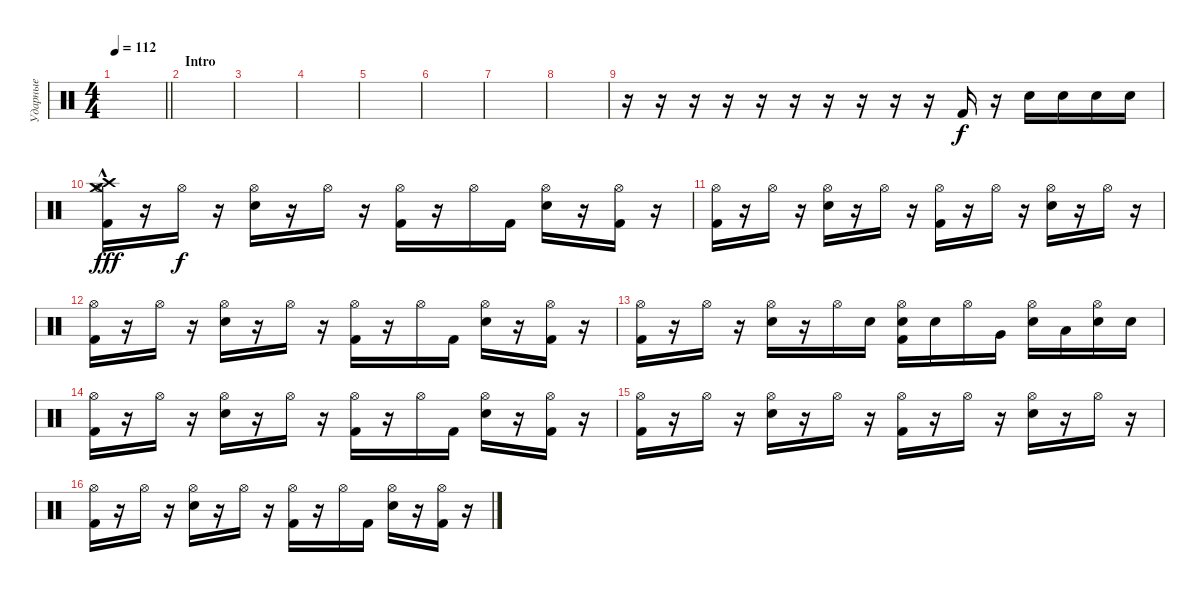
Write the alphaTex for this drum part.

\track ("Ударные" "Ударные") {instrument percussion}
\staff {score}
\articulation defaults
\ts (4 4)
\tempo 112
\clef neutral
\barLineRight lightlight
\ks c
|
\section ("" "Intro")
|
|
|
|
|
|
|
r.16 r.16 r.16 r.16 r.16 r.16 r.16 r.16 r.16 r.16 "Kick (hit) 2".16 r.16 "Snare (hit) 2".16 "Snare (hit) 2".16 "Snare (hit) 2".16 "Snare (hit) 2".16 |
("Crash high (hit)"{hac} "Crash medium (hit)"{hac} "Hi-Hat (open)" "Kick (hit) 2").16{dy fff} r.16 "Hi-Hat (open)".16{dy f} r.16 ("Hi-Hat (open)" "Snare (hit) 2").16 r.16 "Hi-Hat (open)".16 r.16 ("Hi-Hat (open)" "Kick (hit) 2").16 r.16 "Hi-Hat (open)".16 "Kick (hit) 2".16 ("Hi-Hat (open)" "Snare (hit) 2").16 r.16 ("Hi-Hat (open)" "Kick (hit) 2").16 r.16 |
("Hi-Hat (open)" "Kick (hit) 2").16 r.16 "Hi-Hat (open)".16 r.16 ("Hi-Hat (open)" "Snare (hit) 2").16 r.16 "Hi-Hat (open)".16 r.16 ("Hi-Hat (open)" "Kick (hit) 2").16 r.16 "Hi-Hat (open)".16 r.16 ("Hi-Hat (open)" "Snare (hit) 2").16 r.16 "Hi-Hat (open)".16 r.16 |
("Hi-Hat (open)" "Kick (hit) 2").16 r.16 "Hi-Hat (open)".16 r.16 ("Hi-Hat (open)" "Snare (hit) 2").16 r.16 "Hi-Hat (open)".16 r.16 ("Hi-Hat (open)" "Kick (hit) 2").16 r.16 "Hi-Hat (open)".16 "Kick (hit) 2".16 ("Hi-Hat (open)" "Snare (hit) 2").16 r.16 ("Hi-Hat (open)" "Kick (hit) 2").16 r.16 |
("Hi-Hat (open)" "Kick (hit) 2").16 r.16 "Hi-Hat (open)".16 r.16 ("Hi-Hat (open)" "Snare (hit) 2").16 r.16 "Hi-Hat (open)".16 "Snare (hit) 2".16 ("Hi-Hat (open)" "Electric Snare (hit)" "Kick (hit) 2").16 "Snare (hit) 2".16 "Hi-Hat (open)".16 "Very Low Tom (hit)".16 ("Hi-Hat (open)" "Snare (hit) 2").16 "Low Floor Tom (hit)".16 ("Hi-Hat (open)" "Electric Snare (hit)").16 "Snare (hit) 2".16 |
("Hi-Hat (open)" "Kick (hit) 2").16 r.16 "Hi-Hat (open)".16 r.16 ("Hi-Hat (open)" "Snare (hit) 2").16 r.16 "Hi-Hat (open)".16 r.16 ("Hi-Hat (open)" "Kick (hit) 2").16 r.16 "Hi-Hat (open)".16 "Kick (hit) 2".16 ("Hi-Hat (open)" "Snare (hit) 2").16 r.16 ("Hi-Hat (open)" "Kick (hit) 2").16 r.16 |
("Hi-Hat (open)" "Kick (hit) 2").16 r.16 "Hi-Hat (open)".16 r.16 ("Hi-Hat (open)" "Snare (hit) 2").16 r.16 "Hi-Hat (open)".16 r.16 ("Hi-Hat (open)" "Kick (hit) 2").16 r.16 "Hi-Hat (open)".16 r.16 ("Hi-Hat (open)" "Snare (hit) 2").16 r.16 "Hi-Hat (open)".16 r.16 |
("Hi-Hat (open)" "Kick (hit) 2").16 r.16 "Hi-Hat (open)".16 r.16 ("Hi-Hat (open)" "Snare (hit) 2").16 r.16 "Hi-Hat (open)".16 r.16 ("Hi-Hat (open)" "Kick (hit) 2").16 r.16 "Hi-Hat (open)".16 "Kick (hit) 2".16 ("Hi-Hat (open)" "Snare (hit) 2").16 r.16 ("Hi-Hat (open)" "Kick (hit) 2").16 r.16
